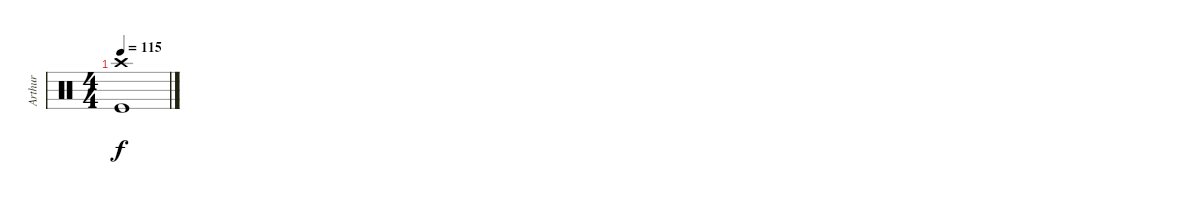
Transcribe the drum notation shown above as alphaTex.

\track ("Arthur" "Arthur") {instrument percussion}
\staff {score}
\articulation defaults
\ts (4 4)
\tempo 115
\clef neutral
\ks c
("Crash high (hit)" "Kick (hit)").1{dy f}
